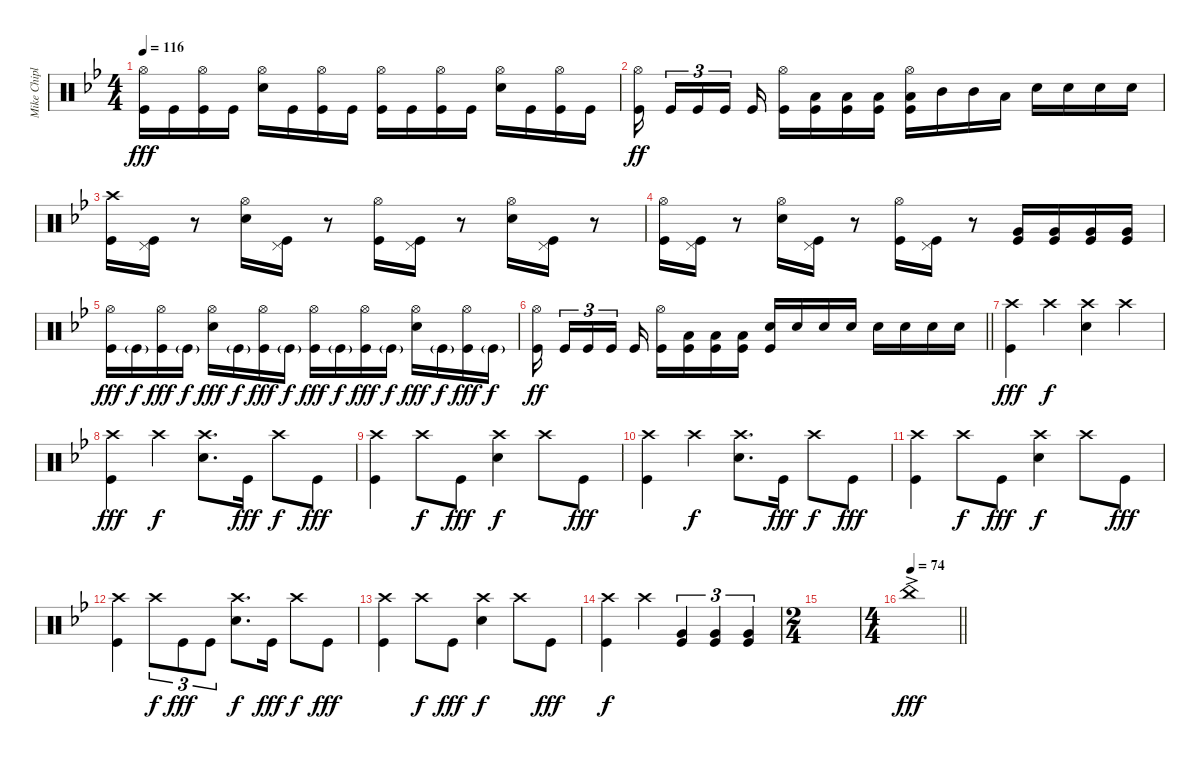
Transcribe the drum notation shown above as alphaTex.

\track ("Mike Chiplin" "Mike Chipl") {instrument percussion}
\staff {score}
\articulation defaults
\ts (4 4)
\tempo 116
\clef neutral
\ks bb
("Hi-Hat (open)" "Kick (hit)").16{dy fff} "Kick (hit)".16 ("Hi-Hat (open)" "Kick (hit)").16 "Kick (hit)".16 ("Hi-Hat (open)" "Snare (hit) 2").16 "Kick (hit)".16 ("Hi-Hat (open)" "Kick (hit)").16 "Kick (hit)".16 ("Hi-Hat (open)" "Kick (hit)").16 "Kick (hit)".16 ("Hi-Hat (open)" "Kick (hit)").16 "Kick (hit)".16 ("Hi-Hat (open)" "Snare (hit) 2").16 "Kick (hit)".16 ("Hi-Hat (open)" "Kick (hit)").16 "Kick (hit)".16 |
("Hi-Hat (open)" "Kick (hit)").16{dy ff} "Kick (hit)".16{tu (3 2)} "Kick (hit)".16{tu (3 2)} "Kick (hit)".16{tu (3 2)} "Kick (hit)".16 ("Hi-Hat (open)" "Kick (hit)").16 ("Kick (hit)" "Low Tom (hit)").16 ("Kick (hit)" "Low Tom (hit)").16 ("Kick (hit)" "Low Tom (hit)").16 ("Hi-Hat (open)" "Kick (hit)" "Low Tom (hit)").16 "Mid Tom (hit)".16 "Mid Tom (hit)".16 "Low Tom (hit)".16 "Snare (hit) 2".16 "Snare (hit) 2".16 "Snare (hit) 2".16 "Snare (hit) 2".16 |
("Crash high (hit)" "Kick (hit)").16 ("Pedal Hi-Hat (hit)" "Kick (hit)").16 r.8 ("Hi-Hat (open)" "Snare (hit) 2").16 ("Pedal Hi-Hat (hit)" "Kick (hit)").16 r.8 ("Hi-Hat (open)" "Kick (hit)").16 ("Pedal Hi-Hat (hit)" "Kick (hit)").16 r.8 ("Hi-Hat (open)" "Snare (hit) 2").16 ("Pedal Hi-Hat (hit)" "Kick (hit)").16 r.8 |
("Hi-Hat (open)" "Kick (hit)").16 ("Pedal Hi-Hat (hit)" "Kick (hit)").16 r.8 ("Hi-Hat (open)" "Snare (hit) 2").16 ("Pedal Hi-Hat (hit)" "Kick (hit)").16 r.8 ("Hi-Hat (open)" "Kick (hit)").16 ("Pedal Hi-Hat (hit)" "Kick (hit)").16 r.8 ("Very Low Tom (hit)" "Kick (hit)").16 ("Very Low Tom (hit)" "Kick (hit)").16 ("Very Low Tom (hit)" "Kick (hit)").16 ("Very Low Tom (hit)" "Kick (hit)").16 |
("Hi-Hat (open)" "Kick (hit)").16{dy fff} "Kick (hit)"{g}.16{dy f} ("Hi-Hat (open)" "Kick (hit)").16{dy fff} "Kick (hit)"{g}.16{dy f} ("Hi-Hat (open)" "Snare (hit) 2").16{dy fff} "Kick (hit)"{g}.16{dy f} ("Hi-Hat (open)" "Kick (hit)").16{dy fff} "Kick (hit)"{g}.16{dy f} ("Hi-Hat (open)" "Kick (hit)").16{dy fff} "Kick (hit)"{g}.16{dy f} ("Hi-Hat (open)" "Kick (hit)").16{dy fff} "Kick (hit)"{g}.16{dy f} ("Hi-Hat (open)" "Snare (hit) 2").16{dy fff} "Kick (hit)"{g}.16{dy f} ("Hi-Hat (open)" "Kick (hit)").16{dy fff} "Kick (hit)"{g}.16{dy f} |
\barLineRight lightlight
("Hi-Hat (open)" "Kick (hit)").16{dy ff} "Kick (hit)".16{tu (3 2)} "Kick (hit)".16{tu (3 2)} "Kick (hit)".16{tu (3 2)} "Kick (hit)".16 ("Hi-Hat (open)" "Kick (hit)").16 ("Kick (hit)" "Low Tom (hit)").16 ("Kick (hit)" "Low Tom (hit)").16 ("Kick (hit)" "Low Tom (hit)").16 ("Snare (hit) 2" "Kick (hit)").16 "Snare (hit) 2".16 "Snare (hit) 2".16 "Snare (hit) 2".16 "Snare (hit) 2".16 "Snare (hit) 2".16 "Snare (hit) 2".16 "Snare (hit) 2".16 |
("Crash high (hit)" "Kick (hit)").4{dy fff} "Crash high (hit)".4{dy f} ("Crash high (hit)" "Snare (hit) 2").4 "Crash high (hit)".4 |
("Crash high (hit)" "Kick (hit)").4{dy fff} "Crash high (hit)".4{dy f} ("Crash high (hit)" "Snare (hit) 2").8{d} "Kick (hit)".16{dy fff} "Crash high (hit)".8{dy f} "Kick (hit)".8{dy fff} |
("Crash high (hit)" "Kick (hit)").4 "Crash high (hit)".8{dy f} "Kick (hit)".8{dy fff} ("Crash high (hit)" "Snare (hit) 2").4{dy f} "Crash high (hit)".8 "Kick (hit)".8{dy fff} |
("Crash high (hit)" "Kick (hit)").4 "Crash high (hit)".4{dy f} ("Crash high (hit)" "Snare (hit) 2").8{d} "Kick (hit)".16{dy fff} "Crash high (hit)".8{dy f} "Kick (hit)".8{dy fff} |
("Crash high (hit)" "Kick (hit)").4 "Crash high (hit)".8{dy f} "Kick (hit)".8{dy fff} ("Crash high (hit)" "Snare (hit) 2").4{dy f} "Crash high (hit)".8 "Kick (hit)".8{dy fff} |
("Crash high (hit)" "Kick (hit)").4 "Crash high (hit)".8{tu (3 2) dy f} "Kick (hit)".8{tu (3 2) dy fff} "Kick (hit)".8{tu (3 2)} ("Crash high (hit)" "Snare (hit) 2").8{d dy f} "Kick (hit)".16{dy fff} "Crash high (hit)".8{dy f} "Kick (hit)".8{dy fff} |
("Crash high (hit)" "Kick (hit)").4 "Crash high (hit)".8{dy f} "Kick (hit)".8{dy fff} ("Crash high (hit)" "Snare (hit) 2").4{dy f} "Crash high (hit)".8 "Kick (hit)".8{dy fff} |
("Crash high (hit)" "Kick (hit)").4{dy f} "Crash high (hit)".4 ("Very Low Tom (hit)" "Kick (hit)").4{tu (3 2)} ("Very Low Tom (hit)" "Kick (hit)").4{tu (3 2)} ("Very Low Tom (hit)" "Kick (hit)").4{tu (3 2)} |
\ts (2 4)
|
\ts (4 4)
\tempo 74
\barLineRight lightlight "China (hit)"{ac}.1{dy fff volume 16}
